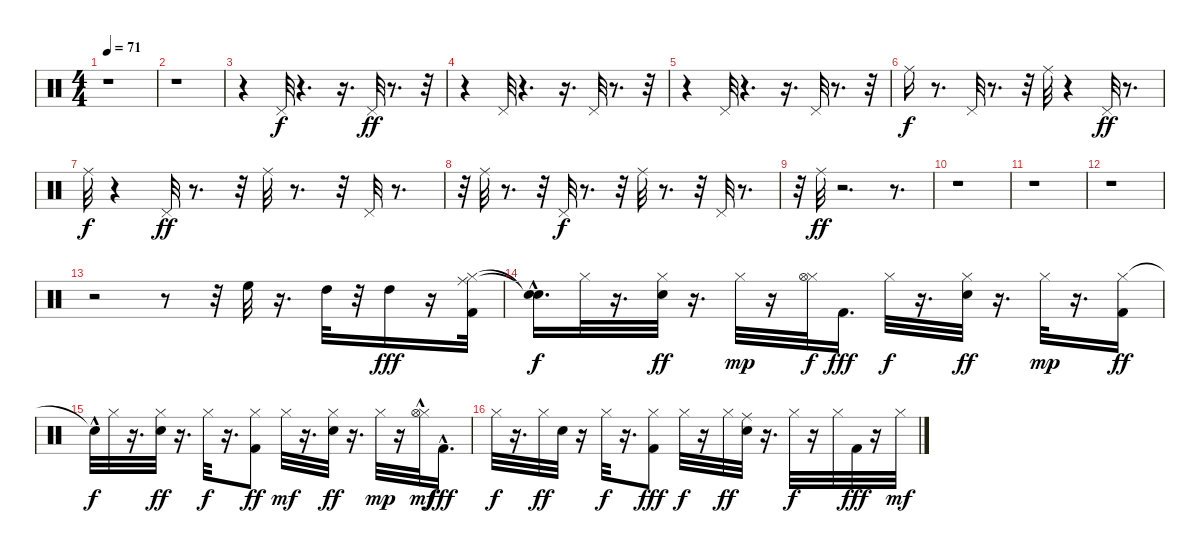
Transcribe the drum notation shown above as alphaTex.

\track "" {instrument percussion}
\staff {score}
\articulation defaults
\ts (4 4)
\tempo 71
\clef neutral
\ks c
r.1{dy f} |
r.1 |
r.4 "Pedal Hi-Hat (hit)".32 r.4{d} r.16{d} "Pedal Hi-Hat (hit)".32{dy ff} r.8{d} r.32 |
r.4 "Pedal Hi-Hat (hit)".32 r.4{d} r.16{d} "Pedal Hi-Hat (hit)".32 r.8{d} r.32 |
r.4 "Pedal Hi-Hat (hit)".32 r.4{d} r.16{d} "Pedal Hi-Hat (hit)".32 r.8{d} r.32 |
"Ride (middle)".16{dy f} r.8{d} "Pedal Hi-Hat (hit)".32 r.8{d} r.32 "Ride (middle)".32 r.4 "Pedal Hi-Hat (hit)".32{dy ff} r.8{d} |
"Ride (middle)".32{dy f} r.4 "Pedal Hi-Hat (hit)".32{dy ff} r.8{d} r.32 "Ride (middle)".32 r.8{d} r.32 "Pedal Hi-Hat (hit)".32 r.8{d} |
r.32 "Ride (middle)".32 r.8{d} r.32 "Pedal Hi-Hat (hit)".32{dy f} r.8{d} r.32 "Ride (middle)".32 r.8{d} r.32 "Pedal Hi-Hat (hit)".32 r.8{d} |
r.32 "Ride (middle)".32{dy ff} r.2{d} r.8{d} |
r.1 |
r.1 |
r.1 |
r.2 r.8 r.32 "High Floor Tom (hit)".32 r.16{d} "High Tom (hit)".32 r.32 "High Tom (hit)".16{dy fff} r.16 ("Ride (middle)" "Hi-Hat (closed)" "Kick (hit) 2").32 |
("Snare (hit)"{hac t} "Snare (hit)"{t}).16{d dy f} "Hi-Hat (closed)".32 r.16{d} ("Hi-Hat (closed)" "Snare (hit) 2").32{dy ff} r.16{d} "Hi-Hat (closed)".32{dy mp} r.16 ("Hi-Hat (closed)" "Hi-Hat (open)").32{dy f} "Kick (hit) 2".16{d dy fff} "Hi-Hat (closed)".32{dy f} r.16{d} ("Hi-Hat (closed)" "Snare (hit) 2").32{dy ff} r.16{d} "Hi-Hat (closed)".32{dy mp} r.16{d} ("Hi-Hat (closed)" "Kick (hit) 2").16{dy ff} |
"Snare (hit)"{hac t}.32{dy f} "Hi-Hat (closed)".32 r.16{d} ("Hi-Hat (closed)" "Snare (hit) 2").32{dy ff} r.16{d} "Hi-Hat (closed)".32{dy f} r.16{d} ("Hi-Hat (closed)" "Kick (hit) 2").8{dy ff} "Hi-Hat (closed)".32{dy mf} r.16{d} ("Hi-Hat (closed)" "Snare (hit) 2").32{dy ff} r.16{d} "Hi-Hat (closed)".32{dy mp} r.16 ("Hi-Hat (closed)" "Hi-Hat (open)"{hac}).32{dy mf} "Kick (hit) 2"{hac}.16{d dy fff} |
"Hi-Hat (closed)".32{dy f} r.16{d} "Hi-Hat (closed)".32{dy ff} "Snare (hit) 2".32 r.16 "Hi-Hat (closed)".32{dy f} r.16{d} ("Hi-Hat (closed)" "Kick (hit) 2").8{dy fff} "Hi-Hat (closed)".32{dy f} r.16 "Hi-Hat (closed)".32{dy ff} ("Ride (middle)" "Snare (hit) 2").32 r.16{d} "Hi-Hat (closed)".32{dy f} r.16 "Hi-Hat (closed)".32 "Kick (hit) 2".32{dy fff} r.16 "Hi-Hat (closed)".32{dy mf}
